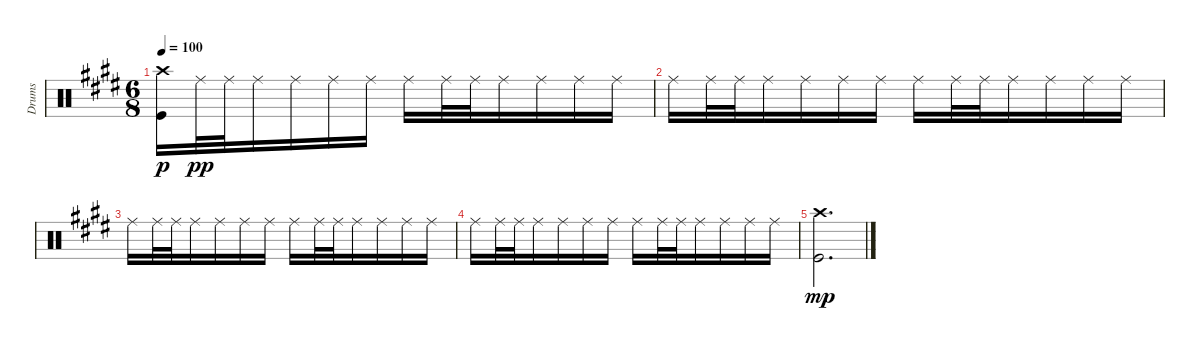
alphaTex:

\track ("Drums" "Drums") {instrument percussion}
\staff {score}
\articulation defaults
\ts (6 8)
\tempo 100
\clef neutral
\ks c#minor
("Crash high (hit)" "Kick (hit)").16{dy p} "Ride (middle)".32{dy pp} "Ride (middle)".32 "Ride (middle)".16 "Ride (middle)".16 "Ride (middle)".16 "Ride (middle)".16 "Ride (middle)".16 "Ride (middle)".32 "Ride (middle)".32 "Ride (middle)".16 "Ride (middle)".16 "Ride (middle)".16 "Ride (middle)".16 |
"Ride (middle)".16 "Ride (middle)".32 "Ride (middle)".32 "Ride (middle)".16 "Ride (middle)".16 "Ride (middle)".16 "Ride (middle)".16 "Ride (middle)".16 "Ride (middle)".32 "Ride (middle)".32 "Ride (middle)".16 "Ride (middle)".16 "Ride (middle)".16 "Ride (middle)".16 |
"Ride (middle)".16 "Ride (middle)".32 "Ride (middle)".32 "Ride (middle)".16 "Ride (middle)".16 "Ride (middle)".16 "Ride (middle)".16 "Ride (middle)".16 "Ride (middle)".32 "Ride (middle)".32 "Ride (middle)".16 "Ride (middle)".16 "Ride (middle)".16 "Ride (middle)".16 |
"Ride (middle)".16 "Ride (middle)".32 "Ride (middle)".32 "Ride (middle)".16 "Ride (middle)".16 "Ride (middle)".16 "Ride (middle)".16 "Ride (middle)".16 "Ride (middle)".32 "Ride (middle)".32 "Ride (middle)".16 "Ride (middle)".16 "Ride (middle)".16 "Ride (middle)".16 |
("Crash high (hit)" "Kick (hit)").2{d dy mp}
